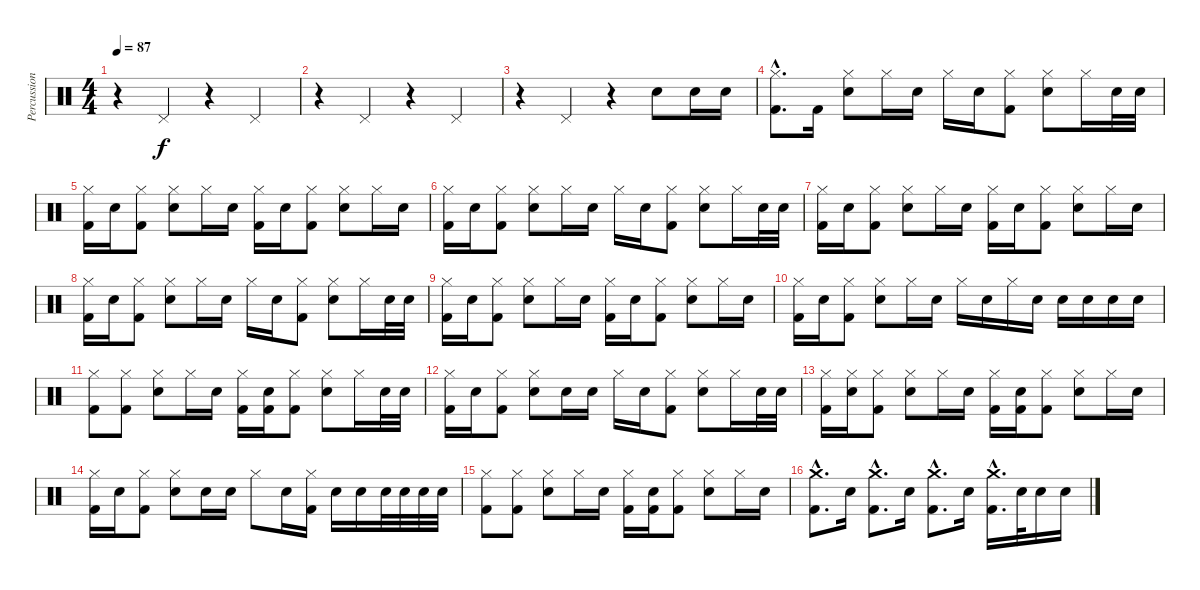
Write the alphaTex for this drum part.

\track ("Percussion" "Percussion") {instrument percussion}
\staff {score}
\articulation defaults
\ts (4 4)
\tempo 87
\clef neutral
\ks c
r.4{dy f} "Pedal Hi-Hat (hit)".4 r.4 "Pedal Hi-Hat (hit)".4 |
r.4 "Pedal Hi-Hat (hit)".4 r.4 "Pedal Hi-Hat (hit)".4 |
r.4 "Pedal Hi-Hat (hit)".4 r.4 "Electric Snare (hit)".8 "Electric Snare (hit)".16 "Electric Snare (hit)".16 |
("Hi-Hat (closed)"{hac} "Kick (hit) 2"{hac}).8{d} "Kick (hit) 2".16 ("Hi-Hat (closed)" "Electric Snare (hit)").8 "Hi-Hat (closed)".16 "Electric Snare (hit)".16 "Hi-Hat (closed)".16 "Electric Snare (hit)".16 ("Hi-Hat (closed)" "Kick (hit) 2").8 ("Hi-Hat (closed)" "Electric Snare (hit)").8 "Hi-Hat (closed)".16 "Electric Snare (hit)".32 "Electric Snare (hit)".32 |
("Hi-Hat (closed)" "Kick (hit) 2").16 "Electric Snare (hit)".16 ("Hi-Hat (closed)" "Kick (hit) 2").8 ("Hi-Hat (closed)" "Electric Snare (hit)").8 "Hi-Hat (closed)".16 "Electric Snare (hit)".16 ("Hi-Hat (closed)" "Kick (hit) 2").16 "Electric Snare (hit)".16 ("Hi-Hat (closed)" "Kick (hit) 2").8 ("Hi-Hat (closed)" "Electric Snare (hit)").8 "Hi-Hat (closed)".16 "Electric Snare (hit)".16 |
("Hi-Hat (closed)" "Kick (hit) 2").16 "Electric Snare (hit)".16 ("Hi-Hat (closed)" "Kick (hit) 2").8 ("Hi-Hat (closed)" "Electric Snare (hit)").8 "Hi-Hat (closed)".16 "Electric Snare (hit)".16 "Hi-Hat (closed)".16 "Electric Snare (hit)".16 ("Hi-Hat (closed)" "Kick (hit) 2").8 ("Hi-Hat (closed)" "Electric Snare (hit)").8 "Hi-Hat (closed)".16 "Electric Snare (hit)".32 "Electric Snare (hit)".32 |
("Hi-Hat (closed)" "Kick (hit) 2").16 "Electric Snare (hit)".16 ("Hi-Hat (closed)" "Kick (hit) 2").8 ("Hi-Hat (closed)" "Electric Snare (hit)").8 "Hi-Hat (closed)".16 "Electric Snare (hit)".16 ("Hi-Hat (closed)" "Kick (hit) 2").16 "Electric Snare (hit)".16 ("Hi-Hat (closed)" "Kick (hit) 2").8 ("Hi-Hat (closed)" "Electric Snare (hit)").8 "Hi-Hat (closed)".16 "Electric Snare (hit)".16 |
("Hi-Hat (closed)" "Kick (hit) 2").16 "Electric Snare (hit)".16 ("Hi-Hat (closed)" "Kick (hit) 2").8 ("Hi-Hat (closed)" "Electric Snare (hit)").8 "Hi-Hat (closed)".16 "Electric Snare (hit)".16 "Hi-Hat (closed)".16 "Electric Snare (hit)".16 ("Hi-Hat (closed)" "Kick (hit) 2").8 ("Hi-Hat (closed)" "Electric Snare (hit)").8 "Hi-Hat (closed)".16 "Electric Snare (hit)".32 "Electric Snare (hit)".32 |
("Hi-Hat (closed)" "Kick (hit) 2").16 "Electric Snare (hit)".16 ("Hi-Hat (closed)" "Kick (hit) 2").8 ("Hi-Hat (closed)" "Electric Snare (hit)").8 "Hi-Hat (closed)".16 "Electric Snare (hit)".16 ("Hi-Hat (closed)" "Kick (hit) 2").16 "Electric Snare (hit)".16 ("Hi-Hat (closed)" "Kick (hit) 2").8 ("Hi-Hat (closed)" "Electric Snare (hit)").8 "Hi-Hat (closed)".16 "Electric Snare (hit)".16 |
("Hi-Hat (closed)" "Kick (hit) 2").16 "Electric Snare (hit)".16 ("Hi-Hat (closed)" "Kick (hit) 2").8 ("Hi-Hat (closed)" "Electric Snare (hit)").8 "Hi-Hat (closed)".16 "Electric Snare (hit)".16 "Hi-Hat (closed)".16 "Electric Snare (hit)".16 "Hi-Hat (closed)".16 "Electric Snare (hit)".16 "Electric Snare (hit)".16 "Electric Snare (hit)".16 "Electric Snare (hit)".16 "Electric Snare (hit)".16 |
("Hi-Hat (closed)" "Kick (hit) 2").8 ("Hi-Hat (closed)" "Kick (hit) 2").8 ("Hi-Hat (closed)" "Electric Snare (hit)").8 "Hi-Hat (closed)".16 "Electric Snare (hit)".16 ("Hi-Hat (closed)" "Kick (hit) 2").16 ("Electric Snare (hit)" "Kick (hit) 2").16 ("Hi-Hat (closed)" "Kick (hit) 2").8 ("Hi-Hat (closed)" "Electric Snare (hit)").8 "Hi-Hat (closed)".16 "Electric Snare (hit)".32 "Electric Snare (hit)".32 |
("Hi-Hat (closed)" "Kick (hit) 2").16 "Electric Snare (hit)".16 ("Hi-Hat (closed)" "Kick (hit) 2").8 ("Hi-Hat (closed)" "Electric Snare (hit)").8 "Electric Snare (hit)".16 "Electric Snare (hit)".16 "Hi-Hat (closed)".16 "Electric Snare (hit)".16 ("Hi-Hat (closed)" "Kick (hit) 2").8 ("Hi-Hat (closed)" "Electric Snare (hit)").8 "Hi-Hat (closed)".16 "Electric Snare (hit)".32 "Electric Snare (hit)".32 |
("Hi-Hat (closed)" "Kick (hit) 2").16 ("Hi-Hat (closed)" "Electric Snare (hit)").16 ("Hi-Hat (closed)" "Kick (hit) 2").8 ("Hi-Hat (closed)" "Electric Snare (hit)").8 "Hi-Hat (closed)".16 "Electric Snare (hit)".16 ("Hi-Hat (closed)" "Kick (hit) 2").16 ("Electric Snare (hit)" "Kick (hit) 2").16 ("Hi-Hat (closed)" "Kick (hit) 2").8 ("Hi-Hat (closed)" "Electric Snare (hit)").8 "Hi-Hat (closed)".16 "Electric Snare (hit)".16 |
("Hi-Hat (closed)" "Kick (hit) 2").16 "Electric Snare (hit)".16 ("Hi-Hat (closed)" "Kick (hit) 2").8 ("Hi-Hat (closed)" "Electric Snare (hit)").8 "Electric Snare (hit)".16 "Electric Snare (hit)".16 "Hi-Hat (closed)".8 "Electric Snare (hit)".16 ("Hi-Hat (closed)" "Kick (hit) 2").16 "Electric Snare (hit)".16 "Electric Snare (hit)".16 "Electric Snare (hit)".32 "Electric Snare (hit)".32 "Electric Snare (hit)".32 "Electric Snare (hit)".32 |
("Hi-Hat (closed)" "Kick (hit) 2").8 ("Hi-Hat (closed)" "Kick (hit) 2").8 ("Hi-Hat (closed)" "Electric Snare (hit)").8 "Hi-Hat (closed)".16 "Electric Snare (hit)".16 ("Hi-Hat (closed)" "Kick (hit) 2").16 ("Electric Snare (hit)" "Kick (hit) 2").16 ("Hi-Hat (closed)" "Kick (hit) 2").8 ("Hi-Hat (closed)" "Electric Snare (hit)").8 "Hi-Hat (closed)".16 "Electric Snare (hit)".16 |
("Crash medium (hit)"{hac} "Kick (hit) 2"{hac}).8{d} "Electric Snare (hit)".16 ("Crash medium (hit)"{hac} "Kick (hit) 2"{hac}).8{d} "Electric Snare (hit)".16 ("Crash medium (hit)"{hac} "Kick (hit) 2"{hac}).8{d} "Electric Snare (hit)".16 ("Crash medium (hit)"{hac} "Kick (hit) 2"{hac}).16{d} "Electric Snare (hit)".32 "Electric Snare (hit)".16 "Electric Snare (hit)".16
